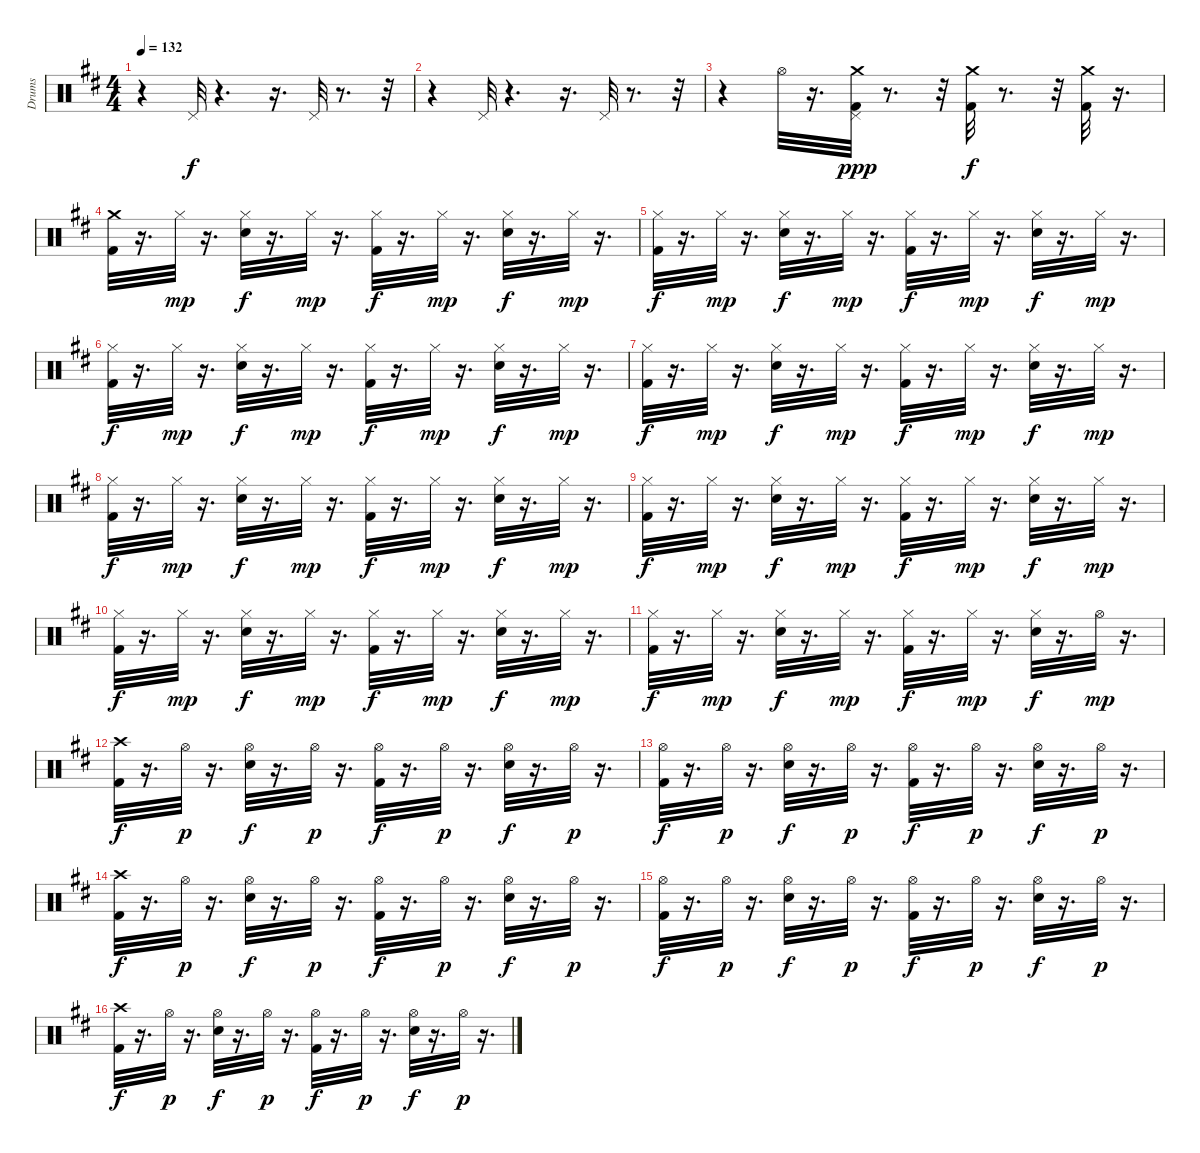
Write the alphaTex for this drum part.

\track ("Drums" "Drums") {instrument percussion}
\staff {score}
\articulation defaults
\ts (4 4)
\tempo 132
\clef neutral
\ks d
r.4{dy f} "Pedal Hi-Hat (hit)".32 r.4{d} r.16{d} "Pedal Hi-Hat (hit)".32 r.8{d} r.32 |
r.4 "Pedal Hi-Hat (hit)".32 r.4{d} r.16{d} "Pedal Hi-Hat (hit)".32 r.8{d} r.32 |
r.4 "Hi-Hat (open)".32 r.16{d} ("Pedal Hi-Hat (hit)" "Crash medium (hit)" "Kick (hit) 2").32{dy ppp} r.8{d} r.32 ("Crash medium (hit)" "Kick (hit) 2").32{dy f} r.8{d} r.32 ("Crash medium (hit)" "Kick (hit) 2").32 r.16{d} |
("Crash medium (hit)" "Kick (hit) 2").32 r.16{d} "Hi-Hat (closed)".32{dy mp} r.16{d} ("Hi-Hat (closed)" "Electric Snare (hit)").32{dy f} r.16{d} "Hi-Hat (closed)".32{dy mp} r.16{d} ("Hi-Hat (closed)" "Kick (hit) 2").32{dy f} r.16{d} "Hi-Hat (closed)".32{dy mp} r.16{d} ("Hi-Hat (closed)" "Electric Snare (hit)").32{dy f} r.16{d} "Hi-Hat (closed)".32{dy mp} r.16{d} |
("Hi-Hat (closed)" "Kick (hit) 2").32{dy f} r.16{d} "Hi-Hat (closed)".32{dy mp} r.16{d} ("Hi-Hat (closed)" "Electric Snare (hit)").32{dy f} r.16{d} "Hi-Hat (closed)".32{dy mp} r.16{d} ("Hi-Hat (closed)" "Kick (hit) 2").32{dy f} r.16{d} "Hi-Hat (closed)".32{dy mp} r.16{d} ("Hi-Hat (closed)" "Electric Snare (hit)").32{dy f} r.16{d} "Hi-Hat (closed)".32{dy mp} r.16{d} |
("Hi-Hat (closed)" "Kick (hit) 2").32{dy f} r.16{d} "Hi-Hat (closed)".32{dy mp} r.16{d} ("Hi-Hat (closed)" "Electric Snare (hit)").32{dy f} r.16{d} "Hi-Hat (closed)".32{dy mp} r.16{d} ("Hi-Hat (closed)" "Kick (hit) 2").32{dy f} r.16{d} "Hi-Hat (closed)".32{dy mp} r.16{d} ("Hi-Hat (closed)" "Electric Snare (hit)").32{dy f} r.16{d} "Hi-Hat (closed)".32{dy mp} r.16{d} |
("Hi-Hat (closed)" "Kick (hit) 2").32{dy f} r.16{d} "Hi-Hat (closed)".32{dy mp} r.16{d} ("Hi-Hat (closed)" "Electric Snare (hit)").32{dy f} r.16{d} "Hi-Hat (closed)".32{dy mp} r.16{d} ("Hi-Hat (closed)" "Kick (hit) 2").32{dy f} r.16{d} "Hi-Hat (closed)".32{dy mp} r.16{d} ("Hi-Hat (closed)" "Electric Snare (hit)").32{dy f} r.16{d} "Hi-Hat (closed)".32{dy mp} r.16{d} |
("Hi-Hat (closed)" "Kick (hit) 2").32{dy f} r.16{d} "Hi-Hat (closed)".32{dy mp} r.16{d} ("Hi-Hat (closed)" "Electric Snare (hit)").32{dy f} r.16{d} "Hi-Hat (closed)".32{dy mp} r.16{d} ("Hi-Hat (closed)" "Kick (hit) 2").32{dy f} r.16{d} "Hi-Hat (closed)".32{dy mp} r.16{d} ("Hi-Hat (closed)" "Electric Snare (hit)").32{dy f} r.16{d} "Hi-Hat (closed)".32{dy mp} r.16{d} |
("Hi-Hat (closed)" "Kick (hit) 2").32{dy f} r.16{d} "Hi-Hat (closed)".32{dy mp} r.16{d} ("Hi-Hat (closed)" "Electric Snare (hit)").32{dy f} r.16{d} "Hi-Hat (closed)".32{dy mp} r.16{d} ("Hi-Hat (closed)" "Kick (hit) 2").32{dy f} r.16{d} "Hi-Hat (closed)".32{dy mp} r.16{d} ("Hi-Hat (closed)" "Electric Snare (hit)").32{dy f} r.16{d} "Hi-Hat (closed)".32{dy mp} r.16{d} |
("Hi-Hat (closed)" "Kick (hit) 2").32{dy f} r.16{d} "Hi-Hat (closed)".32{dy mp} r.16{d} ("Hi-Hat (closed)" "Electric Snare (hit)").32{dy f} r.16{d} "Hi-Hat (closed)".32{dy mp} r.16{d} ("Hi-Hat (closed)" "Kick (hit) 2").32{dy f} r.16{d} "Hi-Hat (closed)".32{dy mp} r.16{d} ("Hi-Hat (closed)" "Electric Snare (hit)").32{dy f} r.16{d} "Hi-Hat (closed)".32{dy mp} r.16{d} |
("Hi-Hat (closed)" "Kick (hit) 2").32{dy f} r.16{d} "Hi-Hat (closed)".32{dy mp} r.16{d} ("Hi-Hat (closed)" "Electric Snare (hit)").32{dy f} r.16{d} "Hi-Hat (closed)".32{dy mp} r.16{d} ("Kick (hit) 2" "Hi-Hat (closed)").32{dy f} r.16{d} "Hi-Hat (closed)".32{dy mp} r.16{d} ("Hi-Hat (closed)" "Electric Snare (hit)").32{dy f} r.16{d} "Hi-Hat (open)".32{dy mp} r.16{d} |
("Crash high (hit)" "Kick (hit) 2").32{dy f} r.16{d} "Hi-Hat (open)".32{dy p} r.16{d} ("Hi-Hat (open)" "Electric Snare (hit)").32{dy f} r.16{d} "Hi-Hat (open)".32{dy p} r.16{d} ("Hi-Hat (open)" "Kick (hit) 2").32{dy f} r.16{d} "Hi-Hat (open)".32{dy p} r.16{d} ("Hi-Hat (open)" "Electric Snare (hit)").32{dy f} r.16{d} "Hi-Hat (open)".32{dy p} r.16{d} |
("Hi-Hat (open)" "Kick (hit) 2").32{dy f} r.16{d} "Hi-Hat (open)".32{dy p} r.16{d} ("Hi-Hat (open)" "Electric Snare (hit)").32{dy f} r.16{d} "Hi-Hat (open)".32{dy p} r.16{d} ("Hi-Hat (open)" "Kick (hit) 2").32{dy f} r.16{d} "Hi-Hat (open)".32{dy p} r.16{d} ("Hi-Hat (open)" "Electric Snare (hit)").32{dy f} r.16{d} "Hi-Hat (open)".32{dy p} r.16{d} |
("Crash high (hit)" "Kick (hit) 2").32{dy f} r.16{d} "Hi-Hat (open)".32{dy p} r.16{d} ("Hi-Hat (open)" "Electric Snare (hit)").32{dy f} r.16{d} "Hi-Hat (open)".32{dy p} r.16{d} ("Hi-Hat (open)" "Kick (hit) 2").32{dy f} r.16{d} "Hi-Hat (open)".32{dy p} r.16{d} ("Hi-Hat (open)" "Electric Snare (hit)").32{dy f} r.16{d} "Hi-Hat (open)".32{dy p} r.16{d} |
("Hi-Hat (open)" "Kick (hit) 2").32{dy f} r.16{d} "Hi-Hat (open)".32{dy p} r.16{d} ("Hi-Hat (open)" "Electric Snare (hit)").32{dy f} r.16{d} "Hi-Hat (open)".32{dy p} r.16{d} ("Hi-Hat (open)" "Kick (hit) 2").32{dy f} r.16{d} "Hi-Hat (open)".32{dy p} r.16{d} ("Hi-Hat (open)" "Electric Snare (hit)").32{dy f} r.16{d} "Hi-Hat (open)".32{dy p} r.16{d} |
("Crash high (hit)" "Kick (hit) 2").32{dy f} r.16{d} "Hi-Hat (open)".32{dy p} r.16{d} ("Hi-Hat (open)" "Electric Snare (hit)").32{dy f} r.16{d} "Hi-Hat (open)".32{dy p} r.16{d} ("Hi-Hat (open)" "Kick (hit) 2").32{dy f} r.16{d} "Hi-Hat (open)".32{dy p} r.16{d} ("Hi-Hat (open)" "Electric Snare (hit)").32{dy f} r.16{d} "Hi-Hat (open)".32{dy p} r.16{d}
